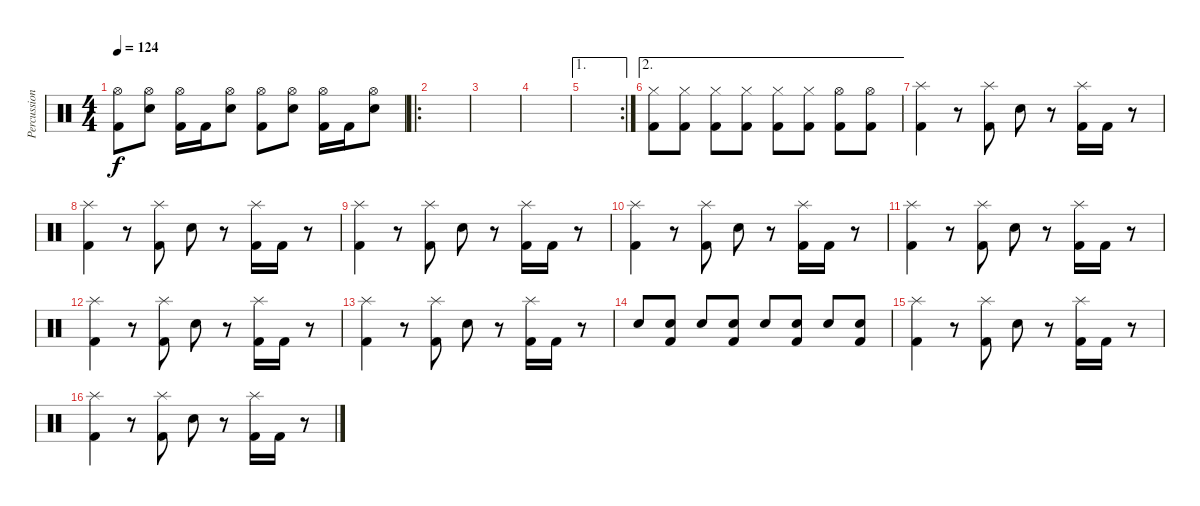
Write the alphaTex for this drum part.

\track ("Percussion" "Percussion") {instrument percussion}
\staff {score}
\articulation defaults
\ts (4 4)
\tempo 124
\clef neutral
\ks c
("Hi-Hat (open)" "Kick (hit) 2").8{dy f} ("Hi-Hat (open)" "Electric Snare (hit)").8 ("Hi-Hat (open)" "Kick (hit) 2").16 "Kick (hit) 2".16 ("Hi-Hat (open)" "Electric Snare (hit)").8 ("Hi-Hat (open)" "Kick (hit) 2").8 ("Hi-Hat (open)" "Electric Snare (hit)").8 ("Hi-Hat (open)" "Kick (hit) 2").16 "Kick (hit) 2".16 ("Hi-Hat (open)" "Electric Snare (hit)").8 |
\ro
|
|
|
\ae 1
\rc 2
|
\ae 2
("Hi-Hat (closed)" "Kick (hit) 2").8 ("Hi-Hat (closed)" "Kick (hit) 2").8 ("Hi-Hat (closed)" "Kick (hit) 2").8 ("Hi-Hat (closed)" "Kick (hit) 2").8 ("Hi-Hat (closed)" "Kick (hit) 2").8 ("Hi-Hat (closed)" "Kick (hit) 2").8 ("Hi-Hat (open)" "Kick (hit) 2").8 ("Hi-Hat (open)" "Kick (hit) 2").8 |
("Splash (hit)" "Kick (hit) 2").4 r.8 ("Splash (hit)" "Kick (hit) 2").8 "Electric Snare (hit)".8 r.8 ("Splash (hit)" "Kick (hit) 2").16 "Kick (hit) 2".16 r.8 |
("Splash (hit)" "Kick (hit) 2").4 r.8 ("Splash (hit)" "Kick (hit) 2").8 "Electric Snare (hit)".8 r.8 ("Splash (hit)" "Kick (hit) 2").16 "Kick (hit) 2".16 r.8 |
("Splash (hit)" "Kick (hit) 2").4 r.8 ("Splash (hit)" "Kick (hit) 2").8 "Electric Snare (hit)".8 r.8 ("Splash (hit)" "Kick (hit) 2").16 "Kick (hit) 2".16 r.8 |
("Splash (hit)" "Kick (hit) 2").4 r.8 ("Splash (hit)" "Kick (hit) 2").8 "Electric Snare (hit)".8 r.8 ("Splash (hit)" "Kick (hit) 2").16 "Kick (hit) 2".16 r.8 |
("Splash (hit)" "Kick (hit) 2").4 r.8 ("Splash (hit)" "Kick (hit) 2").8 "Electric Snare (hit)".8 r.8 ("Splash (hit)" "Kick (hit) 2").16 "Kick (hit) 2".16 r.8 |
("Splash (hit)" "Kick (hit) 2").4 r.8 ("Splash (hit)" "Kick (hit) 2").8 "Electric Snare (hit)".8 r.8 ("Splash (hit)" "Kick (hit) 2").16 "Kick (hit) 2".16 r.8 |
("Splash (hit)" "Kick (hit) 2").4 r.8 ("Splash (hit)" "Kick (hit) 2").8 "Electric Snare (hit)".8 r.8 ("Splash (hit)" "Kick (hit) 2").16 "Kick (hit) 2".16 r.8 |
"Electric Snare (hit)".8 ("Electric Snare (hit)" "Kick (hit) 2").8 "Electric Snare (hit)".8 ("Electric Snare (hit)" "Kick (hit) 2").8 "Electric Snare (hit)".8 ("Electric Snare (hit)" "Kick (hit) 2").8 "Electric Snare (hit)".8 ("Electric Snare (hit)" "Kick (hit) 2").8 |
("Splash (hit)" "Kick (hit) 2").4 r.8 ("Splash (hit)" "Kick (hit) 2").8 "Electric Snare (hit)".8 r.8 ("Splash (hit)" "Kick (hit) 2").16 "Kick (hit) 2".16 r.8 |
("Splash (hit)" "Kick (hit) 2").4 r.8 ("Splash (hit)" "Kick (hit) 2").8 "Electric Snare (hit)".8 r.8 ("Splash (hit)" "Kick (hit) 2").16 "Kick (hit) 2".16 r.8
